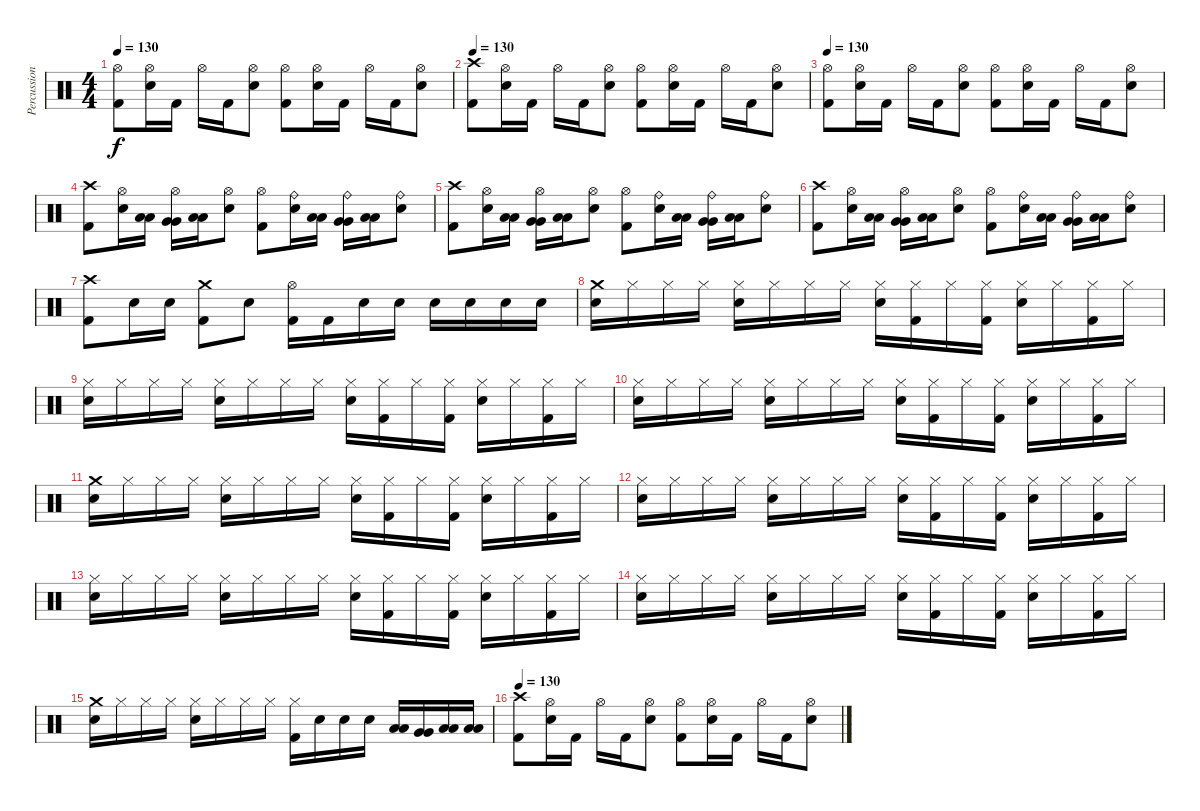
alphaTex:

\track ("Percussions" "Percussion") {instrument percussion}
\staff {score}
\articulation defaults
\ts (4 4)
\tempo 130
\clef neutral
\ks c
("Hi-Hat (open)" "Kick (hit) 2").8{dy f} ("Hi-Hat (open)" "Snare (hit) 2").16 "Kick (hit) 2".16 "Hi-Hat (open)".16 "Kick (hit) 2".16 ("Hi-Hat (open)" "Snare (hit) 2").8 ("Hi-Hat (open)" "Kick (hit) 2").8 ("Hi-Hat (open)" "Snare (hit) 2").16 "Kick (hit) 2".16 "Hi-Hat (open)".16 "Kick (hit) 2".16 ("Hi-Hat (open)" "Snare (hit) 2").8 |
\tempo 130
("Crash high (hit)" "Kick (hit) 2").8 ("Hi-Hat (open)" "Snare (hit) 2").16 "Kick (hit) 2".16 "Hi-Hat (open)".16 "Kick (hit) 2".16 ("Hi-Hat (open)" "Snare (hit) 2").8 ("Hi-Hat (open)" "Kick (hit) 2").8 ("Hi-Hat (open)" "Snare (hit) 2").16 "Kick (hit) 2".16 "Hi-Hat (open)".16 "Kick (hit) 2".16 ("Hi-Hat (open)" "Snare (hit) 2").8 |
\tempo 130
("Hi-Hat (open)" "Kick (hit) 2").8 ("Hi-Hat (open)" "Snare (hit) 2").16 "Kick (hit) 2".16 "Hi-Hat (open)".16 "Kick (hit) 2".16 ("Hi-Hat (open)" "Snare (hit) 2").8 ("Hi-Hat (open)" "Kick (hit) 2").8 ("Hi-Hat (open)" "Snare (hit) 2").16 "Kick (hit) 2".16 "Hi-Hat (open)".16 "Kick (hit) 2".16 ("Hi-Hat (open)" "Snare (hit) 2").8 |
("Crash high (hit)" "Kick (hit) 2").8 ("Hi-Hat (open)" "Snare (hit) 2").16 ("Low Tom (hit)" "Low Tom (hit)").16 ("Hi-Hat (open)" "Very Low Tom (hit)" "Very Low Tom (hit)").16 ("Low Floor Tom (hit)" "Low Floor Tom (hit)").16 ("Hi-Hat (open)" "Snare (hit) 2").8 ("Hi-Hat (open)" "Kick (hit) 2").8 ("Ride (bell)" "Snare (hit) 2").16 ("Low Tom (hit)" "Low Tom (hit)").16 ("Ride (bell)" "Very Low Tom (hit)" "Very Low Tom (hit)").16 ("Low Floor Tom (hit)" "Low Floor Tom (hit)").16 ("Ride (bell)" "Snare (hit) 2").8 |
("Crash high (hit)" "Kick (hit) 2").8 ("Hi-Hat (open)" "Snare (hit) 2").16 ("Low Tom (hit)" "Low Tom (hit)").16 ("Hi-Hat (open)" "Very Low Tom (hit)" "Very Low Tom (hit)").16 ("Low Floor Tom (hit)" "Low Floor Tom (hit)").16 ("Hi-Hat (open)" "Snare (hit) 2").8 ("Hi-Hat (open)" "Kick (hit) 2").8 ("Ride (bell)" "Snare (hit) 2").16 ("Low Tom (hit)" "Low Tom (hit)").16 ("Ride (bell)" "Very Low Tom (hit)" "Very Low Tom (hit)").16 ("Low Floor Tom (hit)" "Low Floor Tom (hit)").16 ("Ride (bell)" "Snare (hit) 2").8 |
("Crash high (hit)" "Kick (hit) 2").8 ("Hi-Hat (open)" "Snare (hit) 2").16 ("Low Tom (hit)" "Low Tom (hit)").16 ("Hi-Hat (open)" "Very Low Tom (hit)" "Very Low Tom (hit)").16 ("Low Floor Tom (hit)" "Low Floor Tom (hit)").16 ("Hi-Hat (open)" "Snare (hit) 2").8 ("Hi-Hat (open)" "Kick (hit) 2").8 ("Ride (bell)" "Snare (hit) 2").16 ("Low Tom (hit)" "Low Tom (hit)").16 ("Ride (bell)" "Very Low Tom (hit)" "Very Low Tom (hit)").16 ("Low Floor Tom (hit)" "Low Floor Tom (hit)").16 ("Ride (bell)" "Snare (hit) 2").8 |
("Crash high (hit)" "Kick (hit) 2").8 "Snare (hit) 2".16 "Snare (hit) 2".16 ("Crash medium (hit)" "Kick (hit) 2").8 "Snare (hit) 2".8 ("Hi-Hat (open)" "Kick (hit) 2").16 "Kick (hit) 2".16 "Snare (hit) 2".16 "Snare (hit) 2".16 "Snare (hit) 2".16 "Snare (hit) 2".16 "Snare (hit) 2".16 "Snare (hit) 2".16 |
("Crash medium (hit)" "Snare (hit) 2").16 "Hi-Hat (closed)".16 "Hi-Hat (closed)".16 "Hi-Hat (closed)".16 ("Hi-Hat (closed)" "Snare (hit) 2").16 "Hi-Hat (closed)".16 "Hi-Hat (closed)".16 "Hi-Hat (closed)".16 ("Hi-Hat (closed)" "Snare (hit) 2").16 ("Hi-Hat (closed)" "Kick (hit) 2").16 "Hi-Hat (closed)".16 ("Hi-Hat (closed)" "Kick (hit) 2").16 ("Hi-Hat (closed)" "Snare (hit) 2").16 "Hi-Hat (closed)".16 ("Hi-Hat (closed)" "Kick (hit) 2").16 "Hi-Hat (closed)".16 |
("Hi-Hat (closed)" "Snare (hit) 2").16 "Hi-Hat (closed)".16 "Hi-Hat (closed)".16 "Hi-Hat (closed)".16 ("Hi-Hat (closed)" "Snare (hit) 2").16 "Hi-Hat (closed)".16 "Hi-Hat (closed)".16 "Hi-Hat (closed)".16 ("Hi-Hat (closed)" "Snare (hit) 2").16 ("Hi-Hat (closed)" "Kick (hit) 2").16 "Hi-Hat (closed)".16 ("Hi-Hat (closed)" "Kick (hit) 2").16 ("Hi-Hat (closed)" "Snare (hit) 2").16 "Hi-Hat (closed)".16 ("Hi-Hat (closed)" "Kick (hit) 2").16 "Hi-Hat (closed)".16 |
("Hi-Hat (closed)" "Snare (hit) 2").16 "Hi-Hat (closed)".16 "Hi-Hat (closed)".16 "Hi-Hat (closed)".16 ("Hi-Hat (closed)" "Snare (hit) 2").16 "Hi-Hat (closed)".16 "Hi-Hat (closed)".16 "Hi-Hat (closed)".16 ("Hi-Hat (closed)" "Snare (hit) 2").16 ("Hi-Hat (closed)" "Kick (hit) 2").16 "Hi-Hat (closed)".16 ("Hi-Hat (closed)" "Kick (hit) 2").16 ("Hi-Hat (closed)" "Snare (hit) 2").16 "Hi-Hat (closed)".16 ("Hi-Hat (closed)" "Kick (hit) 2").16 "Hi-Hat (closed)".16 |
("Crash medium (hit)" "Snare (hit) 2").16 "Hi-Hat (closed)".16 "Hi-Hat (closed)".16 "Hi-Hat (closed)".16 ("Hi-Hat (closed)" "Snare (hit) 2").16 "Hi-Hat (closed)".16 "Hi-Hat (closed)".16 "Hi-Hat (closed)".16 ("Hi-Hat (closed)" "Snare (hit) 2").16 ("Hi-Hat (closed)" "Kick (hit) 2").16 "Hi-Hat (closed)".16 ("Hi-Hat (closed)" "Kick (hit) 2").16 ("Hi-Hat (closed)" "Snare (hit) 2").16 "Hi-Hat (closed)".16 ("Hi-Hat (closed)" "Kick (hit) 2").16 "Hi-Hat (closed)".16 |
("Hi-Hat (closed)" "Snare (hit) 2").16 "Hi-Hat (closed)".16 "Hi-Hat (closed)".16 "Hi-Hat (closed)".16 ("Hi-Hat (closed)" "Snare (hit) 2").16 "Hi-Hat (closed)".16 "Hi-Hat (closed)".16 "Hi-Hat (closed)".16 ("Hi-Hat (closed)" "Snare (hit) 2").16 ("Hi-Hat (closed)" "Kick (hit) 2").16 "Hi-Hat (closed)".16 ("Hi-Hat (closed)" "Kick (hit) 2").16 ("Hi-Hat (closed)" "Snare (hit) 2").16 "Hi-Hat (closed)".16 ("Hi-Hat (closed)" "Kick (hit) 2").16 "Hi-Hat (closed)".16 |
("Hi-Hat (closed)" "Snare (hit) 2").16 "Hi-Hat (closed)".16 "Hi-Hat (closed)".16 "Hi-Hat (closed)".16 ("Hi-Hat (closed)" "Snare (hit) 2").16 "Hi-Hat (closed)".16 "Hi-Hat (closed)".16 "Hi-Hat (closed)".16 ("Hi-Hat (closed)" "Snare (hit) 2").16 ("Hi-Hat (closed)" "Kick (hit) 2").16 "Hi-Hat (closed)".16 ("Hi-Hat (closed)" "Kick (hit) 2").16 ("Hi-Hat (closed)" "Snare (hit) 2").16 "Hi-Hat (closed)".16 ("Hi-Hat (closed)" "Kick (hit) 2").16 "Hi-Hat (closed)".16 |
("Hi-Hat (closed)" "Snare (hit) 2").16 "Hi-Hat (closed)".16 "Hi-Hat (closed)".16 "Hi-Hat (closed)".16 ("Hi-Hat (closed)" "Snare (hit) 2").16 "Hi-Hat (closed)".16 "Hi-Hat (closed)".16 "Hi-Hat (closed)".16 ("Hi-Hat (closed)" "Snare (hit) 2").16 ("Hi-Hat (closed)" "Kick (hit) 2").16 "Hi-Hat (closed)".16 ("Hi-Hat (closed)" "Kick (hit) 2").16 ("Hi-Hat (closed)" "Snare (hit) 2").16 "Hi-Hat (closed)".16 ("Hi-Hat (closed)" "Kick (hit) 2").16 "Hi-Hat (closed)".16 |
("Crash medium (hit)" "Snare (hit) 2").16 "Hi-Hat (closed)".16 "Hi-Hat (closed)".16 "Hi-Hat (closed)".16 ("Hi-Hat (closed)" "Snare (hit) 2").16 "Hi-Hat (closed)".16 "Hi-Hat (closed)".16 "Hi-Hat (closed)".16 ("Hi-Hat (closed)" "Kick (hit) 2").16 "Snare (hit) 2".16 "Snare (hit) 2".16 "Snare (hit) 2".16 ("Low Tom (hit)" "Low Tom (hit)").16 ("Very Low Tom (hit)" "Very Low Tom (hit)").16 ("Low Floor Tom (hit)" "Low Floor Tom (hit)").16 ("Low Floor Tom (hit)" "Low Floor Tom (hit)").16 |
\tempo 130
("Crash high (hit)" "Kick (hit) 2").8 ("Hi-Hat (open)" "Snare (hit) 2").16 "Kick (hit) 2".16 "Hi-Hat (open)".16 "Kick (hit) 2".16 ("Hi-Hat (open)" "Snare (hit) 2").8 ("Hi-Hat (open)" "Kick (hit) 2").8 ("Hi-Hat (open)" "Snare (hit) 2").16 "Kick (hit) 2".16 "Hi-Hat (open)".16 "Kick (hit) 2".16 ("Hi-Hat (open)" "Snare (hit) 2").8
